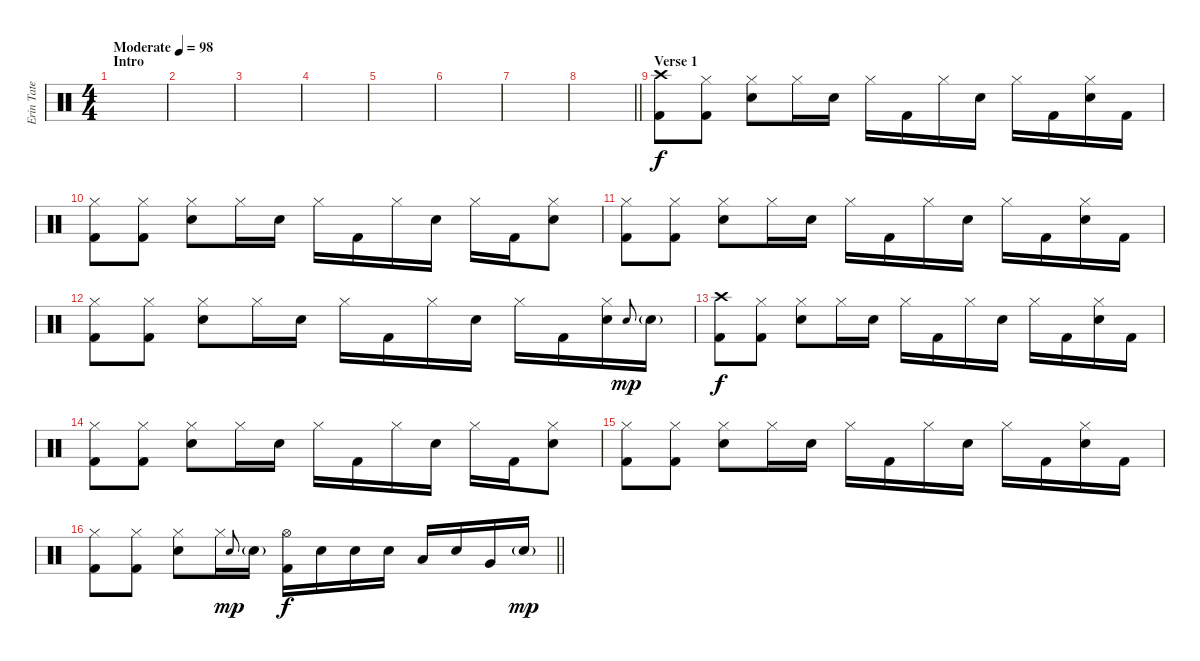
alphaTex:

\track ("Erin Tate" "Erin Tate") {instrument percussion}
\staff {score}
\articulation defaults
\ts (4 4)
\section ("" "Intro")
\tempo (98 "Moderate")
\clef neutral
\ks c
|
|
|
|
|
|
|
\barLineRight lightlight
|
\section ("" "Verse 1")
("Crash high (hit)" "Kick (hit) 2").8 ("Hi-Hat (closed)" "Kick (hit) 2").8 ("Hi-Hat (closed)" "Electric Snare (hit)").8 "Hi-Hat (closed)".16 "Electric Snare (hit)".16 "Hi-Hat (closed)".16 "Kick (hit) 2".16 "Hi-Hat (closed)".16 "Electric Snare (hit)".16 "Hi-Hat (closed)".16 "Kick (hit) 2".16 ("Hi-Hat (closed)" "Electric Snare (hit)").16 "Kick (hit) 2".16 |
("Hi-Hat (closed)" "Kick (hit) 2").8 ("Hi-Hat (closed)" "Kick (hit) 2").8 ("Hi-Hat (closed)" "Electric Snare (hit)").8 "Hi-Hat (closed)".16 "Electric Snare (hit)".16 "Hi-Hat (closed)".16 "Kick (hit) 2".16 "Hi-Hat (closed)".16 "Electric Snare (hit)".16 "Hi-Hat (closed)".16 "Kick (hit) 2".16 ("Hi-Hat (closed)" "Electric Snare (hit)").8 |
("Hi-Hat (closed)" "Kick (hit) 2").8 ("Hi-Hat (closed)" "Kick (hit) 2").8 ("Hi-Hat (closed)" "Electric Snare (hit)").8 "Hi-Hat (closed)".16 "Electric Snare (hit)".16 "Hi-Hat (closed)".16 "Kick (hit) 2".16 "Hi-Hat (closed)".16 "Electric Snare (hit)".16 "Hi-Hat (closed)".16 "Kick (hit) 2".16 ("Hi-Hat (closed)" "Electric Snare (hit)").16 "Kick (hit) 2".16 |
("Hi-Hat (closed)" "Kick (hit) 2").8 ("Hi-Hat (closed)" "Kick (hit) 2").8 ("Hi-Hat (closed)" "Electric Snare (hit)").8 "Hi-Hat (closed)".16 "Electric Snare (hit)".16 "Hi-Hat (closed)".16 "Kick (hit) 2".16 "Hi-Hat (closed)".16 "Electric Snare (hit)".16 "Hi-Hat (closed)".16 "Kick (hit) 2".16 ("Hi-Hat (closed)" "Electric Snare (hit)").16 "Electric Snare (hit)".8{gr onbeat dy mp} "Electric Snare (hit)"{g}.16 |
("Crash high (hit)" "Kick (hit) 2").8{dy f} ("Hi-Hat (closed)" "Kick (hit) 2").8 ("Hi-Hat (closed)" "Electric Snare (hit)").8 "Hi-Hat (closed)".16 "Electric Snare (hit)".16 "Hi-Hat (closed)".16 "Kick (hit) 2".16 "Hi-Hat (closed)".16 "Electric Snare (hit)".16 "Hi-Hat (closed)".16 "Kick (hit) 2".16 ("Hi-Hat (closed)" "Electric Snare (hit)").16 "Kick (hit) 2".16 |
("Hi-Hat (closed)" "Kick (hit) 2").8 ("Hi-Hat (closed)" "Kick (hit) 2").8 ("Hi-Hat (closed)" "Electric Snare (hit)").8 "Hi-Hat (closed)".16 "Electric Snare (hit)".16 "Hi-Hat (closed)".16 "Kick (hit) 2".16 "Hi-Hat (closed)".16 "Electric Snare (hit)".16 "Hi-Hat (closed)".16 "Kick (hit) 2".16 ("Hi-Hat (closed)" "Electric Snare (hit)").8 |
("Hi-Hat (closed)" "Kick (hit) 2").8 ("Hi-Hat (closed)" "Kick (hit) 2").8 ("Hi-Hat (closed)" "Electric Snare (hit)").8 "Hi-Hat (closed)".16 "Electric Snare (hit)".16 "Hi-Hat (closed)".16 "Kick (hit) 2".16 "Hi-Hat (closed)".16 "Electric Snare (hit)".16 "Hi-Hat (closed)".16 "Kick (hit) 2".16 ("Hi-Hat (closed)" "Electric Snare (hit)").16 "Kick (hit) 2".16 |
\barLineRight lightlight
("Hi-Hat (closed)" "Kick (hit) 2").8 ("Hi-Hat (closed)" "Kick (hit) 2").8 ("Hi-Hat (closed)" "Electric Snare (hit)").8 "Hi-Hat (closed)".16 "Electric Snare (hit)".8{gr onbeat dy mp} "Electric Snare (hit)"{g}.16 ("Hi-Hat (open)" "Kick (hit) 2").16{dy f} "Electric Snare (hit)".16 "Electric Snare (hit)".16 "Electric Snare (hit)".16 "Low Tom (hit)".16 "Electric Snare (hit)".16 "Very Low Tom (hit)".16 "Electric Snare (hit)"{g}.16{dy mp}
